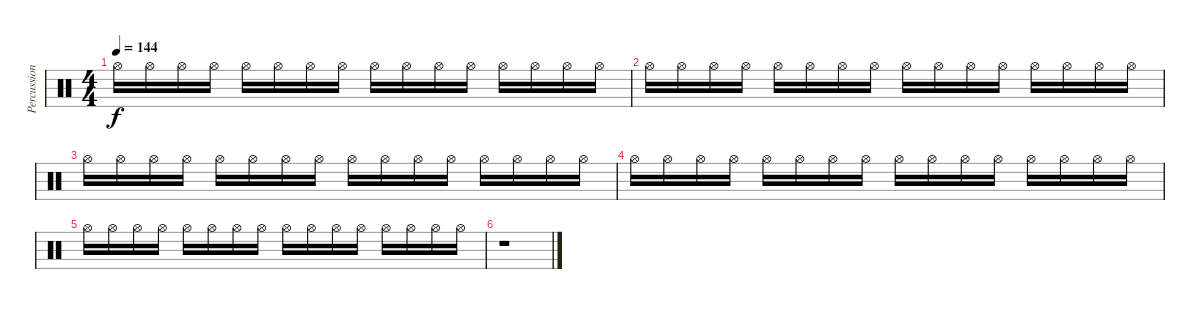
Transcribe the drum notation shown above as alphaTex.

\track ("Percussion" "Percussion") {instrument percussion}
\staff {score}
\articulation defaults
\ts (4 4)
\tempo 144
\clef neutral
\ks c "Hi-Hat (open)".16{dy f} "Hi-Hat (open)".16 "Hi-Hat (open)".16 "Hi-Hat (open)".16 "Hi-Hat (open)".16 "Hi-Hat (open)".16 "Hi-Hat (open)".16 "Hi-Hat (open)".16 "Hi-Hat (open)".16 "Hi-Hat (open)".16 "Hi-Hat (open)".16 "Hi-Hat (open)".16 "Hi-Hat (open)".16 "Hi-Hat (open)".16 "Hi-Hat (open)".16 "Hi-Hat (open)".16
|
"Hi-Hat (open)".16 "Hi-Hat (open)".16 "Hi-Hat (open)".16 "Hi-Hat (open)".16 "Hi-Hat (open)".16 "Hi-Hat (open)".16 "Hi-Hat (open)".16 "Hi-Hat (open)".16 "Hi-Hat (open)".16 "Hi-Hat (open)".16 "Hi-Hat (open)".16 "Hi-Hat (open)".16 "Hi-Hat (open)".16 "Hi-Hat (open)".16 "Hi-Hat (open)".16 "Hi-Hat (open)".16 |
"Hi-Hat (open)".16 "Hi-Hat (open)".16 "Hi-Hat (open)".16 "Hi-Hat (open)".16 "Hi-Hat (open)".16 "Hi-Hat (open)".16 "Hi-Hat (open)".16 "Hi-Hat (open)".16 "Hi-Hat (open)".16 "Hi-Hat (open)".16 "Hi-Hat (open)".16 "Hi-Hat (open)".16 "Hi-Hat (open)".16 "Hi-Hat (open)".16 "Hi-Hat (open)".16 "Hi-Hat (open)".16 |
"Hi-Hat (open)".16 "Hi-Hat (open)".16 "Hi-Hat (open)".16 "Hi-Hat (open)".16 "Hi-Hat (open)".16 "Hi-Hat (open)".16 "Hi-Hat (open)".16 "Hi-Hat (open)".16 "Hi-Hat (open)".16 "Hi-Hat (open)".16 "Hi-Hat (open)".16 "Hi-Hat (open)".16 "Hi-Hat (open)".16 "Hi-Hat (open)".16 "Hi-Hat (open)".16 "Hi-Hat (open)".16 |
"Hi-Hat (open)".16 "Hi-Hat (open)".16 "Hi-Hat (open)".16 "Hi-Hat (open)".16 "Hi-Hat (open)".16 "Hi-Hat (open)".16 "Hi-Hat (open)".16 "Hi-Hat (open)".16 "Hi-Hat (open)".16 "Hi-Hat (open)".16 "Hi-Hat (open)".16 "Hi-Hat (open)".16 "Hi-Hat (open)".16 "Hi-Hat (open)".16 "Hi-Hat (open)".16 "Hi-Hat (open)".16 |
r.1
